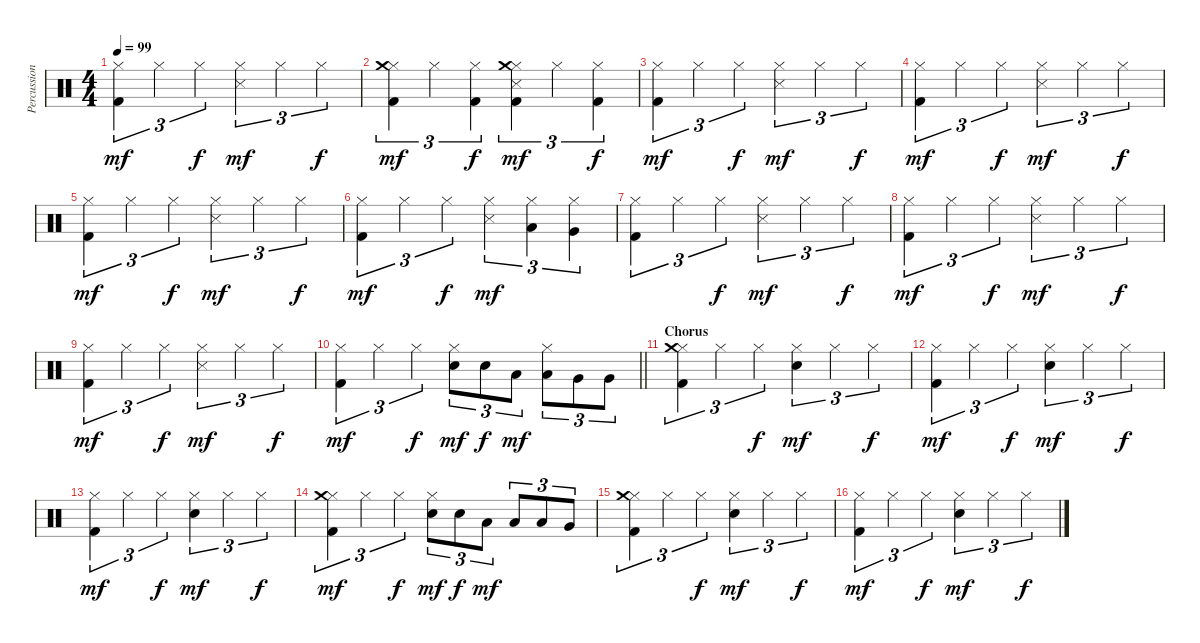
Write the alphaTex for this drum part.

\track ("Percussion" "Percussion") {instrument percussion}
\staff {score}
\articulation defaults
\ts (4 4)
\tempo 99
\clef neutral
\ks c
("Hi-Hat (closed)" "Kick (hit) 2").4{tu (3 2) dy mf} "Hi-Hat (closed)".4{tu (3 2)} "Hi-Hat (closed)".4{tu (3 2) dy f} ("Hi-Hat (closed)" "Snare (side stick) 3").4{tu (3 2) dy mf} "Hi-Hat (closed)".4{tu (3 2)} "Hi-Hat (closed)".4{tu (3 2) dy f} |
("Hi-Hat (closed)" "Crash medium (hit)" "Kick (hit) 2").4{tu (3 2) dy mf} "Hi-Hat (closed)".4{tu (3 2)} ("Hi-Hat (closed)" "Kick (hit) 2").4{tu (3 2) dy f} ("Hi-Hat (closed)" "Crash medium (hit)" "Snare (side stick) 3" "Kick (hit) 2").4{tu (3 2) dy mf} "Hi-Hat (closed)".4{tu (3 2)} ("Hi-Hat (closed)" "Kick (hit) 2").4{tu (3 2) dy f} |
("Hi-Hat (closed)" "Kick (hit) 2").4{tu (3 2) dy mf} "Hi-Hat (closed)".4{tu (3 2)} "Hi-Hat (closed)".4{tu (3 2) dy f} ("Hi-Hat (closed)" "Snare (side stick) 3").4{tu (3 2) dy mf} "Hi-Hat (closed)".4{tu (3 2)} "Hi-Hat (closed)".4{tu (3 2) dy f} |
("Hi-Hat (closed)" "Kick (hit) 2").4{tu (3 2) dy mf} "Hi-Hat (closed)".4{tu (3 2)} "Hi-Hat (closed)".4{tu (3 2) dy f} ("Hi-Hat (closed)" "Snare (side stick) 3").4{tu (3 2) dy mf} "Hi-Hat (closed)".4{tu (3 2)} "Hi-Hat (closed)".4{tu (3 2) dy f} |
("Hi-Hat (closed)" "Kick (hit) 2").4{tu (3 2) dy mf} "Hi-Hat (closed)".4{tu (3 2)} "Hi-Hat (closed)".4{tu (3 2) dy f} ("Hi-Hat (closed)" "Snare (side stick) 3").4{tu (3 2) dy mf} "Hi-Hat (closed)".4{tu (3 2)} "Hi-Hat (closed)".4{tu (3 2) dy f} |
("Hi-Hat (closed)" "Kick (hit) 2").4{tu (3 2) dy mf} "Hi-Hat (closed)".4{tu (3 2)} "Hi-Hat (closed)".4{tu (3 2) dy f} ("Hi-Hat (closed)" "Snare (side stick) 3").4{tu (3 2) dy mf} ("Hi-Hat (closed)" "Low Tom (hit)").4{tu (3 2)} ("Hi-Hat (closed)" "Very Low Tom (hit)").4{tu (3 2)} |
("Hi-Hat (closed)" "Kick (hit) 2").4{tu (3 2)} "Hi-Hat (closed)".4{tu (3 2)} "Hi-Hat (closed)".4{tu (3 2) dy f} ("Hi-Hat (closed)" "Snare (side stick) 3").4{tu (3 2) dy mf} "Hi-Hat (closed)".4{tu (3 2)} "Hi-Hat (closed)".4{tu (3 2) dy f} |
("Hi-Hat (closed)" "Kick (hit) 2").4{tu (3 2) dy mf} "Hi-Hat (closed)".4{tu (3 2)} "Hi-Hat (closed)".4{tu (3 2) dy f} ("Hi-Hat (closed)" "Snare (side stick) 3").4{tu (3 2) dy mf} "Hi-Hat (closed)".4{tu (3 2)} "Hi-Hat (closed)".4{tu (3 2) dy f} |
("Hi-Hat (closed)" "Kick (hit) 2").4{tu (3 2) dy mf} "Hi-Hat (closed)".4{tu (3 2)} "Hi-Hat (closed)".4{tu (3 2) dy f} ("Hi-Hat (closed)" "Snare (side stick) 3").4{tu (3 2) dy mf} "Hi-Hat (closed)".4{tu (3 2)} "Hi-Hat (closed)".4{tu (3 2) dy f} |
\barLineRight lightlight
("Hi-Hat (closed)" "Kick (hit) 2").4{tu (3 2) dy mf} "Hi-Hat (closed)".4{tu (3 2)} "Hi-Hat (closed)".4{tu (3 2) dy f} ("Hi-Hat (closed)" "Electric Snare (hit)").8{tu (3 2) dy mf} "Electric Snare (hit)".8{tu (3 2) dy f} "Low Tom (hit)".8{tu (3 2) dy mf} ("Hi-Hat (closed)" "Low Tom (hit)").8{tu (3 2)} "Very Low Tom (hit)".8{tu (3 2)} "Very Low Tom (hit)".8{tu (3 2)} |
\section ("" "Chorus")
("Hi-Hat (closed)" "Crash medium (hit)" "Kick (hit) 2").4{tu (3 2)} "Hi-Hat (closed)".4{tu (3 2)} "Hi-Hat (closed)".4{tu (3 2) dy f} ("Hi-Hat (closed)" "Electric Snare (hit)").4{tu (3 2) dy mf} "Hi-Hat (closed)".4{tu (3 2)} "Hi-Hat (closed)".4{tu (3 2) dy f} |
("Hi-Hat (closed)" "Kick (hit) 2").4{tu (3 2) dy mf} "Hi-Hat (closed)".4{tu (3 2)} "Hi-Hat (closed)".4{tu (3 2) dy f} ("Hi-Hat (closed)" "Electric Snare (hit)").4{tu (3 2) dy mf} "Hi-Hat (closed)".4{tu (3 2)} "Hi-Hat (closed)".4{tu (3 2) dy f} |
("Hi-Hat (closed)" "Kick (hit) 2").4{tu (3 2) dy mf} "Hi-Hat (closed)".4{tu (3 2)} "Hi-Hat (closed)".4{tu (3 2) dy f} ("Hi-Hat (closed)" "Electric Snare (hit)").4{tu (3 2) dy mf} "Hi-Hat (closed)".4{tu (3 2)} "Hi-Hat (closed)".4{tu (3 2) dy f} |
("Hi-Hat (closed)" "Crash medium (hit)" "Kick (hit) 2").4{tu (3 2) dy mf} "Hi-Hat (closed)".4{tu (3 2)} "Hi-Hat (closed)".4{tu (3 2) dy f} ("Hi-Hat (closed)" "Electric Snare (hit)").8{tu (3 2) dy mf} "Electric Snare (hit)".8{tu (3 2) dy f} "Low Tom (hit)".8{tu (3 2) dy mf} "Low Tom (hit)".8{tu (3 2)} "Low Tom (hit)".8{tu (3 2)} "Very Low Tom (hit)".8{tu (3 2)} |
("Hi-Hat (closed)" "Crash medium (hit)" "Kick (hit) 2").4{tu (3 2)} "Hi-Hat (closed)".4{tu (3 2)} "Hi-Hat (closed)".4{tu (3 2) dy f} ("Hi-Hat (closed)" "Electric Snare (hit)").4{tu (3 2) dy mf} "Hi-Hat (closed)".4{tu (3 2)} "Hi-Hat (closed)".4{tu (3 2) dy f} |
("Hi-Hat (closed)" "Kick (hit) 2").4{tu (3 2) dy mf} "Hi-Hat (closed)".4{tu (3 2)} "Hi-Hat (closed)".4{tu (3 2) dy f} ("Hi-Hat (closed)" "Electric Snare (hit)").4{tu (3 2) dy mf} "Hi-Hat (closed)".4{tu (3 2)} "Hi-Hat (closed)".4{tu (3 2) dy f}
